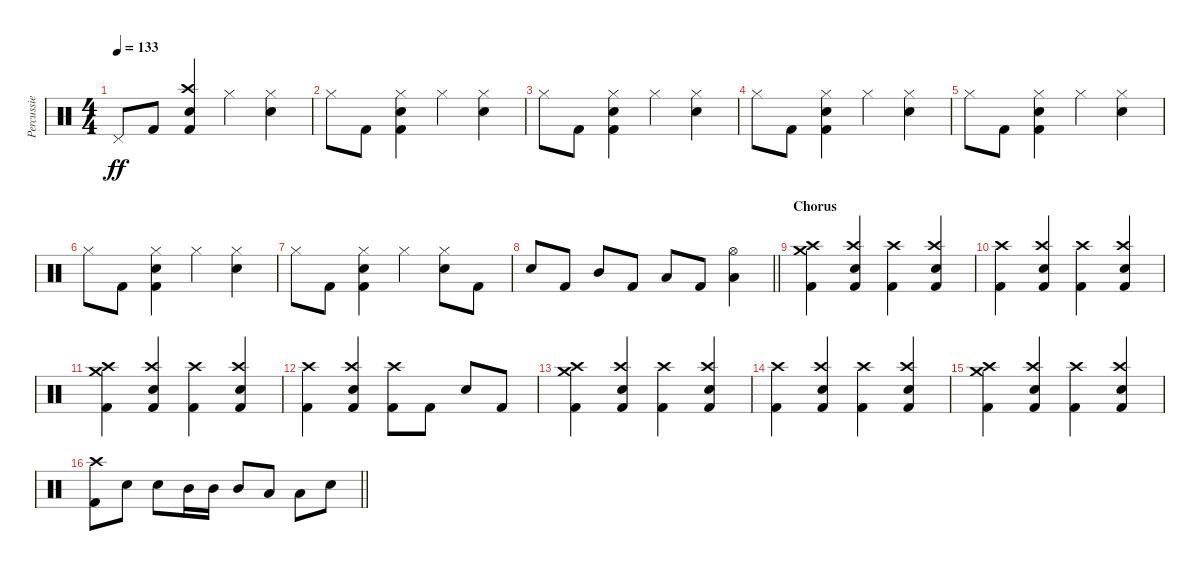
\track ("Percussie" "Percussie") {instrument percussion}
\staff {score}
\articulation defaults
\ts (4 4)
\tempo 133
\clef neutral
\ks c "Pedal Hi-Hat (hit)".8{dy ff} "Kick (hit) 2".8
("Crash high (hit)" "Snare (hit) 2" "Kick (hit) 2").4 "Hi-Hat (closed)".4 ("Hi-Hat (closed)" "Snare (hit) 2").4 |
"Hi-Hat (closed)".8 "Kick (hit) 2".8 ("Hi-Hat (closed)" "Snare (hit) 2" "Kick (hit) 2").4 "Hi-Hat (closed)".4 ("Hi-Hat (closed)" "Snare (hit) 2").4 |
"Hi-Hat (closed)".8 "Kick (hit) 2".8 ("Hi-Hat (closed)" "Snare (hit) 2" "Kick (hit) 2").4 "Hi-Hat (closed)".4 ("Hi-Hat (closed)" "Snare (hit) 2").4 |
"Hi-Hat (closed)".8 "Kick (hit) 2".8 ("Hi-Hat (closed)" "Snare (hit) 2" "Kick (hit) 2").4 "Hi-Hat (closed)".4 ("Hi-Hat (closed)" "Snare (hit) 2").4 |
"Hi-Hat (closed)".8 "Kick (hit) 2".8 ("Hi-Hat (closed)" "Snare (hit) 2" "Kick (hit) 2").4 "Hi-Hat (closed)".4 ("Hi-Hat (closed)" "Snare (hit) 2").4 |
"Hi-Hat (closed)".8 "Kick (hit) 2".8 ("Hi-Hat (closed)" "Snare (hit) 2" "Kick (hit) 2").4 "Hi-Hat (closed)".4 ("Hi-Hat (closed)" "Snare (hit) 2").4 |
"Hi-Hat (closed)".8 "Kick (hit) 2".8 ("Hi-Hat (closed)" "Snare (hit) 2" "Kick (hit) 2").4 "Hi-Hat (closed)".4 ("Hi-Hat (closed)" "Snare (hit) 2").8 "Kick (hit) 2".8 |
\barLineRight lightlight "Snare (hit) 2".8 "Kick (hit) 2".8 "Mid Tom (hit)".8 "Kick (hit) 2".8 "Low Tom (hit)".8 "Kick (hit) 2".8
("Hi-Hat (open)" "Low Floor Tom (hit)").4 |
\section ("" "Chorus")
("Crash medium (hit)" "Crash high (hit)" "Kick (hit) 2").4 ("Crash high (hit)" "Snare (hit) 2" "Kick (hit) 2").4 ("Crash high (hit)" "Kick (hit) 2").4 ("Crash high (hit)" "Snare (hit) 2" "Kick (hit) 2").4 |
("Crash high (hit)" "Kick (hit) 2").4 ("Crash high (hit)" "Snare (hit) 2" "Kick (hit) 2").4 ("Crash high (hit)" "Kick (hit) 2").4 ("Crash high (hit)" "Snare (hit) 2" "Kick (hit) 2").4 |
("Crash medium (hit)" "Crash high (hit)" "Kick (hit) 2").4 ("Crash high (hit)" "Snare (hit) 2" "Kick (hit) 2").4 ("Crash high (hit)" "Kick (hit) 2").4 ("Crash high (hit)" "Snare (hit) 2" "Kick (hit) 2").4 |
("Crash high (hit)" "Kick (hit) 2").4 ("Crash high (hit)" "Snare (hit) 2" "Kick (hit) 2").4 ("Crash high (hit)" "Kick (hit) 2").8 "Kick (hit) 2".8 "Snare (hit) 2".8 "Kick (hit) 2".8 |
("Crash medium (hit)" "Crash high (hit)" "Kick (hit) 2").4 ("Crash high (hit)" "Snare (hit) 2" "Kick (hit) 2").4 ("Crash high (hit)" "Kick (hit) 2").4 ("Crash high (hit)" "Snare (hit) 2" "Kick (hit) 2").4 |
("Crash high (hit)" "Kick (hit) 2").4 ("Crash high (hit)" "Snare (hit) 2" "Kick (hit) 2").4 ("Crash high (hit)" "Kick (hit) 2").4 ("Crash high (hit)" "Snare (hit) 2" "Kick (hit) 2").4 |
("Crash medium (hit)" "Crash high (hit)" "Kick (hit) 2").4 ("Crash high (hit)" "Snare (hit) 2" "Kick (hit) 2").4 ("Crash high (hit)" "Kick (hit) 2").4 ("Crash high (hit)" "Snare (hit) 2" "Kick (hit) 2").4 |
\barLineRight lightlight
("Crash high (hit)" "Kick (hit) 2").8 "Snare (hit) 2".8 "Snare (hit) 2".8 "Mid Tom (hit)".16 "Mid Tom (hit)".16 "Mid Tom (hit)".8 "Low Floor Tom (hit)".8 "Low Floor Tom (hit)".8 "Snare (hit) 2".8
